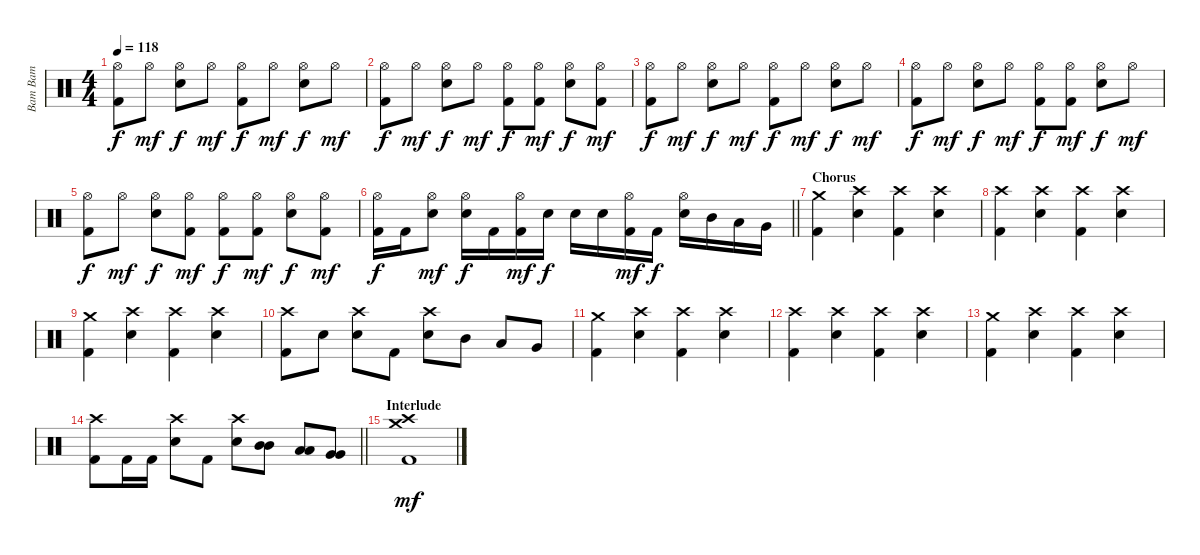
\track ("Bam Bam" "Bam Bam") {instrument percussion}
\staff {score}
\articulation defaults
\ts (4 4)
\tempo 118
\clef neutral
\ks c
("Hi-Hat (open)" "Kick (hit) 2").8{dy f} "Hi-Hat (open)".8{dy mf} ("Hi-Hat (open)" "Electric Snare (hit)").8{dy f} "Hi-Hat (open)".8{dy mf} ("Hi-Hat (open)" "Kick (hit) 2").8{dy f} "Hi-Hat (open)".8{dy mf} ("Hi-Hat (open)" "Electric Snare (hit)").8{dy f} "Hi-Hat (open)".8{dy mf} |
("Hi-Hat (open)" "Kick (hit) 2").8{dy f} "Hi-Hat (open)".8{dy mf} ("Hi-Hat (open)" "Electric Snare (hit)").8{dy f} "Hi-Hat (open)".8{dy mf} ("Hi-Hat (open)" "Kick (hit) 2").8{dy f} ("Hi-Hat (open)" "Kick (hit) 2").8{dy mf} ("Hi-Hat (open)" "Electric Snare (hit)").8{dy f} ("Hi-Hat (open)" "Kick (hit) 2").8{dy mf} |
("Hi-Hat (open)" "Kick (hit) 2").8{dy f} "Hi-Hat (open)".8{dy mf} ("Hi-Hat (open)" "Electric Snare (hit)").8{dy f} "Hi-Hat (open)".8{dy mf} ("Hi-Hat (open)" "Kick (hit) 2").8{dy f} "Hi-Hat (open)".8{dy mf} ("Hi-Hat (open)" "Electric Snare (hit)").8{dy f} "Hi-Hat (open)".8{dy mf} |
("Hi-Hat (open)" "Kick (hit) 2").8{dy f} "Hi-Hat (open)".8{dy mf} ("Hi-Hat (open)" "Electric Snare (hit)").8{dy f} "Hi-Hat (open)".8{dy mf} ("Hi-Hat (open)" "Kick (hit) 2").8{dy f} ("Hi-Hat (open)" "Kick (hit) 2").8{dy mf} ("Hi-Hat (open)" "Electric Snare (hit)").8{dy f} "Hi-Hat (open)".8{dy mf} |
("Hi-Hat (open)" "Kick (hit) 2").8{dy f} "Hi-Hat (open)".8{dy mf} ("Hi-Hat (open)" "Electric Snare (hit)").8{dy f} ("Hi-Hat (open)" "Kick (hit) 2").8{dy mf} ("Hi-Hat (open)" "Kick (hit) 2").8{dy f} ("Hi-Hat (open)" "Kick (hit) 2").8{dy mf} ("Hi-Hat (open)" "Electric Snare (hit)").8{dy f} ("Hi-Hat (open)" "Kick (hit) 2").8{dy mf} |
\barLineRight lightlight
("Hi-Hat (open)" "Kick (hit) 2").16{dy f} "Kick (hit) 2".16 ("Hi-Hat (open)" "Electric Snare (hit)").8{dy mf} ("Hi-Hat (open)" "Electric Snare (hit)").16{dy f} "Kick (hit) 2".16 ("Hi-Hat (open)" "Kick (hit) 2").16{dy mf} "Electric Snare (hit)".16{dy f} "Electric Snare (hit)".16 "Electric Snare (hit)".16 ("Hi-Hat (open)" "Kick (hit) 2").16{dy mf} "Kick (hit) 2".16{dy f} ("Hi-Hat (open)" "Electric Snare (hit)").16 "Mid Tom (hit)".16 "Low Tom (hit)".16 "Very Low Tom (hit)".16 |
\section ("" "Chorus")
("Crash medium (hit)" "Kick (hit) 2").4 ("Crash high (hit)" "Electric Snare (hit)").4 ("Crash high (hit)" "Kick (hit) 2").4 ("Crash high (hit)" "Electric Snare (hit)").4 |
("Crash high (hit)" "Kick (hit) 2").4 ("Crash high (hit)" "Electric Snare (hit)").4 ("Crash high (hit)" "Kick (hit) 2").4 ("Crash high (hit)" "Electric Snare (hit)").4 |
("Crash medium (hit)" "Kick (hit) 2").4 ("Crash high (hit)" "Electric Snare (hit)").4 ("Crash high (hit)" "Kick (hit) 2").4 ("Crash high (hit)" "Electric Snare (hit)").4 |
("Crash high (hit)" "Kick (hit) 2").8 "Electric Snare (hit)".8 ("Crash high (hit)" "Electric Snare (hit)").8 "Kick (hit) 2".8 ("Crash high (hit)" "Electric Snare (hit)").8 "Mid Tom (hit)".8 "Low Tom (hit)".8 "Very Low Tom (hit)".8 |
("Crash medium (hit)" "Kick (hit) 2").4 ("Crash high (hit)" "Electric Snare (hit)").4 ("Crash high (hit)" "Kick (hit) 2").4 ("Crash high (hit)" "Electric Snare (hit)").4 |
("Crash high (hit)" "Kick (hit) 2").4 ("Crash high (hit)" "Electric Snare (hit)").4 ("Crash high (hit)" "Kick (hit) 2").4 ("Crash high (hit)" "Electric Snare (hit)").4 |
("Crash medium (hit)" "Kick (hit) 2").4 ("Crash high (hit)" "Electric Snare (hit)").4 ("Crash high (hit)" "Kick (hit) 2").4 ("Crash high (hit)" "Electric Snare (hit)").4 |
\barLineRight lightlight
("Crash high (hit)" "Kick (hit) 2").8 "Kick (hit) 2".16 "Kick (hit) 2".16 ("Crash high (hit)" "Electric Snare (hit)").8 "Kick (hit) 2".8 ("Crash high (hit)" "Electric Snare (hit)").8 ("Mid Tom (hit)" "Mid Tom (hit)").8 ("Low Tom (hit)" "Low Tom (hit)").8 ("Very Low Tom (hit)" "Very Low Tom (hit)").8 |
\section ("" "Interlude")
("Crash medium (hit)" "Crash high (hit)" "Kick (hit) 2").1{dy mf}
